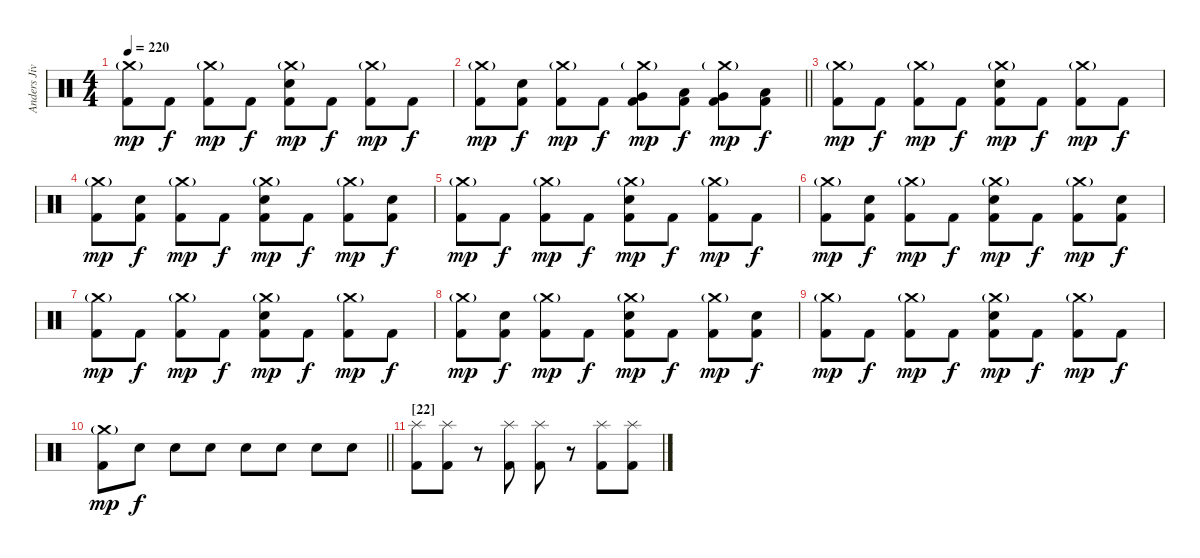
\track ("Anders Jivarp" "Anders Jiv") {instrument percussion}
\staff {score}
\articulation defaults
\ts (4 4)
\tempo 220
\clef neutral
\ks c
("Crash medium (hit)"{g} "Kick (hit) 2").8{dy mp} "Kick (hit) 2".8{dy f} ("Crash medium (hit)"{g} "Kick (hit) 2").8{dy mp} "Kick (hit) 2".8{dy f} ("Crash medium (hit)"{g} "Snare (hit) 2" "Kick (hit) 2").8{dy mp} "Kick (hit) 2".8{dy f} ("Crash medium (hit)"{g} "Kick (hit) 2").8{dy mp} "Kick (hit) 2".8{dy f} |
\barLineRight lightlight
("Crash medium (hit)"{g} "Kick (hit) 2").8{dy mp} ("Snare (hit) 2" "Kick (hit) 2").8{dy f} ("Crash medium (hit)"{g} "Kick (hit) 2").8{dy mp} "Kick (hit) 2".8{dy f} ("Crash medium (hit)"{g} "Very Low Tom (hit)" "Kick (hit) 2").8{dy mp} ("Low Floor Tom (hit)" "Kick (hit) 2").8{dy f} ("Crash medium (hit)"{g} "Very Low Tom (hit)" "Kick (hit) 2").8{dy mp} ("Low Tom (hit)" "Kick (hit) 2").8{dy f} |
("Crash medium (hit)"{g} "Kick (hit) 2").8{dy mp} "Kick (hit) 2".8{dy f} ("Crash medium (hit)"{g} "Kick (hit) 2").8{dy mp} "Kick (hit) 2".8{dy f} ("Crash medium (hit)"{g} "Snare (hit) 2" "Kick (hit) 2").8{dy mp} "Kick (hit) 2".8{dy f} ("Crash medium (hit)"{g} "Kick (hit) 2").8{dy mp} "Kick (hit) 2".8{dy f} |
("Crash medium (hit)"{g} "Kick (hit) 2").8{dy mp} ("Snare (hit) 2" "Kick (hit) 2").8{dy f} ("Crash medium (hit)"{g} "Kick (hit) 2").8{dy mp} "Kick (hit) 2".8{dy f} ("Crash medium (hit)"{g} "Snare (hit) 2" "Kick (hit) 2").8{dy mp} "Kick (hit) 2".8{dy f} ("Crash medium (hit)"{g} "Kick (hit) 2").8{dy mp} ("Snare (hit) 2" "Kick (hit) 2").8{dy f} |
("Crash medium (hit)"{g} "Kick (hit) 2").8{dy mp} "Kick (hit) 2".8{dy f} ("Crash medium (hit)"{g} "Kick (hit) 2").8{dy mp} "Kick (hit) 2".8{dy f} ("Crash medium (hit)"{g} "Snare (hit) 2" "Kick (hit) 2").8{dy mp} "Kick (hit) 2".8{dy f} ("Crash medium (hit)"{g} "Kick (hit) 2").8{dy mp} "Kick (hit) 2".8{dy f} |
("Crash medium (hit)"{g} "Kick (hit) 2").8{dy mp} ("Snare (hit) 2" "Kick (hit) 2").8{dy f} ("Crash medium (hit)"{g} "Kick (hit) 2").8{dy mp} "Kick (hit) 2".8{dy f} ("Crash medium (hit)"{g} "Snare (hit) 2" "Kick (hit) 2").8{dy mp} "Kick (hit) 2".8{dy f} ("Crash medium (hit)"{g} "Kick (hit) 2").8{dy mp} ("Snare (hit) 2" "Kick (hit) 2").8{dy f} |
("Crash medium (hit)"{g} "Kick (hit) 2").8{dy mp} "Kick (hit) 2".8{dy f} ("Crash medium (hit)"{g} "Kick (hit) 2").8{dy mp} "Kick (hit) 2".8{dy f} ("Crash medium (hit)"{g} "Snare (hit) 2" "Kick (hit) 2").8{dy mp} "Kick (hit) 2".8{dy f} ("Crash medium (hit)"{g} "Kick (hit) 2").8{dy mp} "Kick (hit) 2".8{dy f} |
("Crash medium (hit)"{g} "Kick (hit) 2").8{dy mp} ("Snare (hit) 2" "Kick (hit) 2").8{dy f} ("Crash medium (hit)"{g} "Kick (hit) 2").8{dy mp} "Kick (hit) 2".8{dy f} ("Crash medium (hit)"{g} "Snare (hit) 2" "Kick (hit) 2").8{dy mp} "Kick (hit) 2".8{dy f} ("Crash medium (hit)"{g} "Kick (hit) 2").8{dy mp} ("Snare (hit) 2" "Kick (hit) 2").8{dy f} |
("Crash medium (hit)"{g} "Kick (hit) 2").8{dy mp} "Kick (hit) 2".8{dy f} ("Crash medium (hit)"{g} "Kick (hit) 2").8{dy mp} "Kick (hit) 2".8{dy f} ("Crash medium (hit)"{g} "Snare (hit) 2" "Kick (hit) 2").8{dy mp} "Kick (hit) 2".8{dy f} ("Crash medium (hit)"{g} "Kick (hit) 2").8{dy mp} "Kick (hit) 2".8{dy f} |
\barLineRight lightlight
("Crash medium (hit)"{g} "Kick (hit) 2").8{dy mp} "Snare (hit) 2".8{dy f} "Snare (hit) 2".8 "Snare (hit) 2".8 "Snare (hit) 2".8 "Snare (hit) 2".8 "Snare (hit) 2".8 "Snare (hit) 2".8 |
\section ("" "[22]")
("Splash (hit)" "Kick (hit) 2").8 ("Splash (hit)" "Kick (hit) 2").8 r.8 ("Splash (hit)" "Kick (hit) 2").8 ("Splash (hit)" "Kick (hit) 2").8 r.8 ("Splash (hit)" "Kick (hit) 2").8 ("Splash (hit)" "Kick (hit) 2").8
